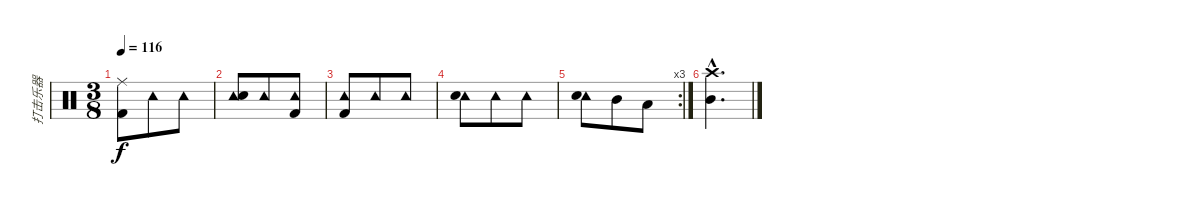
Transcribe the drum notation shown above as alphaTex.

\track ("打击乐器" "打击乐器") {instrument percussion}
\staff {score}
\articulation defaults
\ts (3 8)
\tempo 116
\clef neutral
\ks c
("Ride (middle)" "Kick (hit) 2").8{dy f} "Tambourine (hit)".8 "Tambourine (hit)".8 |
("Tambourine (hit)" "Snare (hit) 2").8 "Tambourine (hit)".8 ("Tambourine (hit)" "Kick (hit) 2").8 |
("Tambourine (hit)" "Kick (hit) 2").8 "Tambourine (hit)".8 "Tambourine (hit)".8 |
("Tambourine (hit)" "Snare (hit) 2").8 "Tambourine (hit)".8 "Tambourine (hit)".8 |
\rc 3
("Tambourine (hit)" "Snare (hit) 2").8 "Mid Tom (hit)".8 "Low Floor Tom (hit)".8 |
("Crash high (hit)"{hac} "Mid Tom (hit)"{hac}).4{d}
